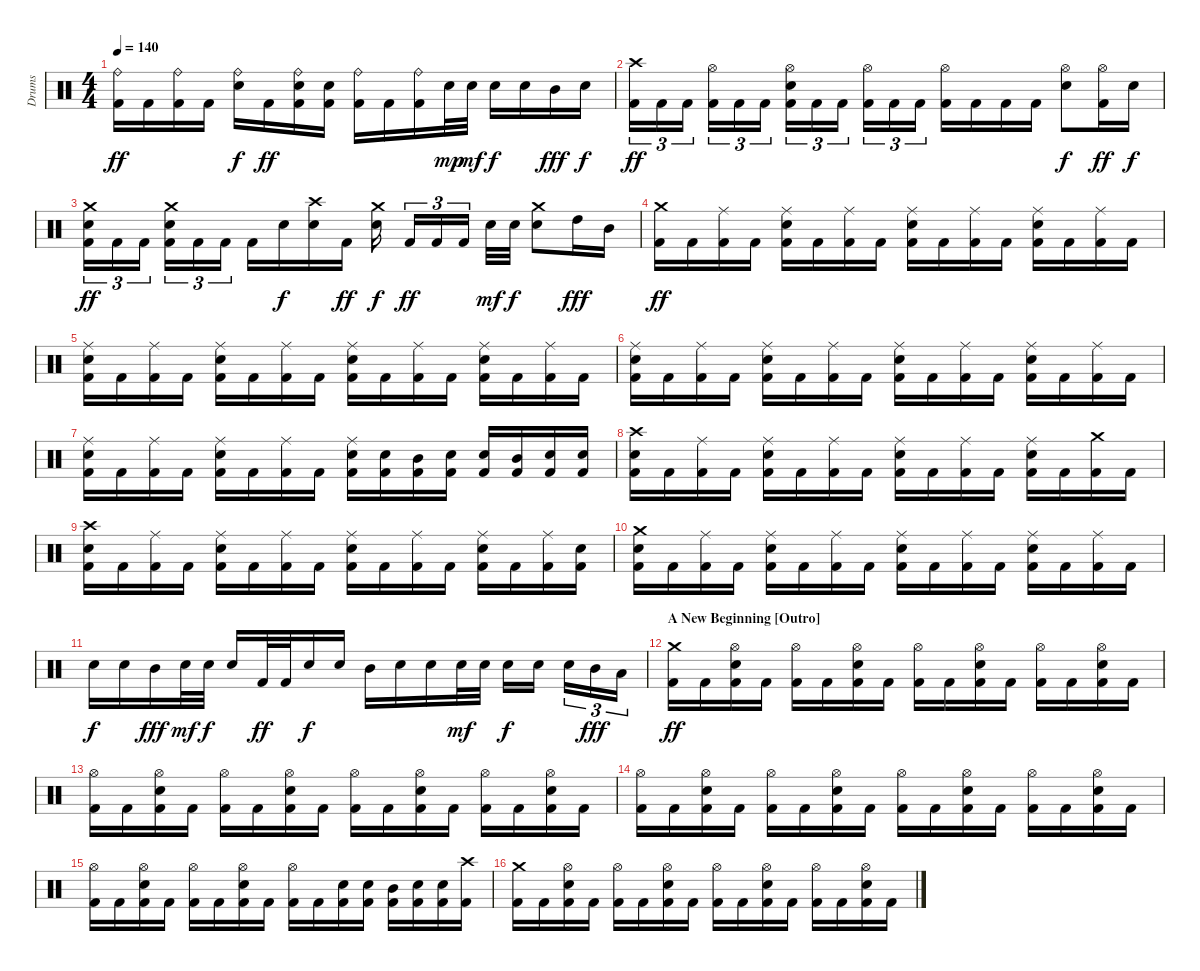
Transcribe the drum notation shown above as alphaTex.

\track ("Drums" "Drums") {instrument percussion}
\staff {score}
\articulation defaults
\ts (4 4)
\tempo 140
\clef neutral
\ks c
("Ride (bell)" "Kick (hit) 2").16{dy ff} "Kick (hit) 2".16 ("Ride (bell)" "Kick (hit) 2").16 "Kick (hit) 2".16 ("Ride (bell)" "Snare (hit) 2").16{dy f} "Kick (hit) 2".16{dy ff} ("Ride (bell)" "Snare (hit) 2" "Kick (hit) 2").16 ("Snare (hit) 2" "Kick (hit) 2").16 ("Ride (bell)" "Kick (hit) 2").16 "Kick (hit) 2".16 ("Ride (bell)" "Kick (hit) 2").16 "Snare (hit) 2".32{dy mp} "Snare (hit) 2".32{dy mf} "Snare (hit) 2".16{dy f} "Snare (hit) 2".16 "Mid Tom (hit)".16{dy fff} "Snare (hit) 2".16{dy f} |
("Crash high (hit)" "Kick (hit) 2").16{tu (3 2) dy ff} "Kick (hit) 2".16{tu (3 2)} "Kick (hit) 2".16{tu (3 2)} ("Hi-Hat (open)" "Kick (hit) 2").16{tu (3 2)} "Kick (hit) 2".16{tu (3 2)} "Kick (hit) 2".16{tu (3 2)} ("Hi-Hat (open)" "Snare (hit) 2" "Kick (hit) 2").16{tu (3 2)} "Kick (hit) 2".16{tu (3 2)} "Kick (hit) 2".16{tu (3 2)} ("Hi-Hat (open)" "Kick (hit) 2").16{tu (3 2)} "Kick (hit) 2".16{tu (3 2)} "Kick (hit) 2".16{tu (3 2)} ("Hi-Hat (open)" "Kick (hit) 2").16 "Kick (hit) 2".16 "Kick (hit) 2".16 "Kick (hit) 2".16 ("Hi-Hat (open)" "Snare (hit) 2").8{dy f} ("Hi-Hat (open)" "Kick (hit) 2").16{dy ff} "Snare (hit) 2".16{dy f} |
("Crash medium (hit)" "Snare (hit) 2" "Kick (hit) 2").16{tu (3 2) dy ff} "Kick (hit) 2".16{tu (3 2)} "Kick (hit) 2".16{tu (3 2)} ("Crash medium (hit)" "Snare (hit) 2" "Kick (hit) 2").16{tu (3 2)} "Kick (hit) 2".16{tu (3 2)} "Kick (hit) 2".16{tu (3 2)} "Kick (hit) 2".16 "Snare (hit) 2".16{dy f} ("Crash high (hit)" "Snare (hit) 2").16 "Kick (hit) 2".16{dy ff} ("Crash medium (hit)" "Snare (hit) 2").16{dy f} "Kick (hit) 2".16{tu (3 2) dy ff} "Kick (hit) 2".16{tu (3 2)} "Kick (hit) 2".16{tu (3 2)} "Snare (hit) 2".32{dy mf} "Snare (hit) 2".32{dy f} ("Crash medium (hit)" "Snare (hit) 2").8 "High Tom (hit)".16{dy fff} "Mid Tom (hit)".16 |
("Crash medium (hit)" "Kick (hit) 2").16{dy ff} "Kick (hit) 2".16 ("Ride (middle)" "Kick (hit) 2").16 "Kick (hit) 2".16 ("Ride (middle)" "Snare (hit) 2" "Kick (hit) 2").16 "Kick (hit) 2".16 ("Ride (middle)" "Kick (hit) 2").16 "Kick (hit) 2".16 ("Ride (middle)" "Snare (hit) 2" "Kick (hit) 2").16 "Kick (hit) 2".16 ("Ride (middle)" "Kick (hit) 2").16 "Kick (hit) 2".16 ("Ride (middle)" "Snare (hit) 2" "Kick (hit) 2").16 "Kick (hit) 2".16 ("Ride (middle)" "Kick (hit) 2").16 "Kick (hit) 2".16 |
("Ride (middle)" "Snare (hit) 2" "Kick (hit) 2").16 "Kick (hit) 2".16 ("Ride (middle)" "Kick (hit) 2").16 "Kick (hit) 2".16 ("Ride (middle)" "Snare (hit) 2" "Kick (hit) 2").16 "Kick (hit) 2".16 ("Ride (middle)" "Kick (hit) 2").16 "Kick (hit) 2".16 ("Ride (middle)" "Snare (hit) 2" "Kick (hit) 2").16 "Kick (hit) 2".16 ("Ride (middle)" "Kick (hit) 2").16 "Kick (hit) 2".16 ("Ride (middle)" "Snare (hit) 2" "Kick (hit) 2").16 "Kick (hit) 2".16 ("Ride (middle)" "Kick (hit) 2").16 "Kick (hit) 2".16 |
("Ride (middle)" "Snare (hit) 2" "Kick (hit) 2").16 "Kick (hit) 2".16 ("Ride (middle)" "Kick (hit) 2").16 "Kick (hit) 2".16 ("Ride (middle)" "Snare (hit) 2" "Kick (hit) 2").16 "Kick (hit) 2".16 ("Ride (middle)" "Kick (hit) 2").16 "Kick (hit) 2".16 ("Ride (middle)" "Snare (hit) 2" "Kick (hit) 2").16 "Kick (hit) 2".16 ("Ride (middle)" "Kick (hit) 2").16 "Kick (hit) 2".16 ("Ride (middle)" "Snare (hit) 2" "Kick (hit) 2").16 "Kick (hit) 2".16 ("Ride (middle)" "Kick (hit) 2").16 "Kick (hit) 2".16 |
("Ride (middle)" "Snare (hit) 2" "Kick (hit) 2").16 "Kick (hit) 2".16 ("Ride (middle)" "Kick (hit) 2").16 "Kick (hit) 2".16 ("Ride (middle)" "Snare (hit) 2" "Kick (hit) 2").16 "Kick (hit) 2".16 ("Ride (middle)" "Kick (hit) 2").16 "Kick (hit) 2".16 ("Ride (middle)" "Snare (hit) 2" "Kick (hit) 2").16 ("Snare (hit) 2" "Kick (hit) 2").16 ("Mid Tom (hit)" "Kick (hit) 2").16 ("Snare (hit) 2" "Kick (hit) 2").16 ("Snare (hit) 2" "Kick (hit) 2").16 ("Mid Tom (hit)" "Kick (hit) 2").16 ("Snare (hit) 2" "Kick (hit) 2").16 ("Snare (hit) 2" "Kick (hit) 2").16 |
("Crash high (hit)" "Snare (hit) 2" "Kick (hit) 2").16 "Kick (hit) 2".16 ("Ride (middle)" "Kick (hit) 2").16 "Kick (hit) 2".16 ("Ride (middle)" "Snare (hit) 2" "Kick (hit) 2").16 "Kick (hit) 2".16 ("Ride (middle)" "Kick (hit) 2").16 "Kick (hit) 2".16 ("Ride (middle)" "Snare (hit) 2" "Kick (hit) 2").16 "Kick (hit) 2".16 ("Ride (middle)" "Kick (hit) 2").16 "Kick (hit) 2".16 ("Ride (middle)" "Snare (hit) 2" "Kick (hit) 2").16 "Kick (hit) 2".16 ("Crash medium (hit)" "Kick (hit) 2").16 "Kick (hit) 2".16 |
("Crash high (hit)" "Snare (hit) 2" "Kick (hit) 2").16 "Kick (hit) 2".16 ("Ride (middle)" "Kick (hit) 2").16 "Kick (hit) 2".16 ("Ride (middle)" "Snare (hit) 2" "Kick (hit) 2").16 "Kick (hit) 2".16 ("Ride (middle)" "Kick (hit) 2").16 "Kick (hit) 2".16 ("Ride (middle)" "Snare (hit) 2" "Kick (hit) 2").16 "Kick (hit) 2".16 ("Ride (middle)" "Kick (hit) 2").16 "Kick (hit) 2".16 ("Ride (middle)" "Snare (hit) 2" "Kick (hit) 2").16 "Kick (hit) 2".16 ("Ride (middle)" "Kick (hit) 2").16 ("Snare (hit) 2" "Kick (hit) 2").16 |
("Crash medium (hit)" "Snare (hit) 2" "Kick (hit) 2").16 "Kick (hit) 2".16 ("Ride (middle)" "Kick (hit) 2").16 "Kick (hit) 2".16 ("Ride (middle)" "Snare (hit) 2" "Kick (hit) 2").16 "Kick (hit) 2".16 ("Ride (middle)" "Kick (hit) 2").16 "Kick (hit) 2".16 ("Ride (middle)" "Snare (hit) 2" "Kick (hit) 2").16 "Kick (hit) 2".16 ("Ride (middle)" "Kick (hit) 2").16 "Kick (hit) 2".16 ("Ride (middle)" "Snare (hit) 2" "Kick (hit) 2").16 "Kick (hit) 2".16 ("Ride (middle)" "Kick (hit) 2").16 "Kick (hit) 2".16 |
"Snare (hit) 2".16{dy f} "Snare (hit) 2".16 "Mid Tom (hit)".16{dy fff} "Snare (hit) 2".32{dy mf} "Snare (hit) 2".32{dy f} "Snare (hit) 2".16 "Kick (hit) 2".32{dy ff} "Kick (hit) 2".32 "Snare (hit) 2".16{dy f} "Snare (hit) 2".16 "Mid Tom (hit)".16 "Snare (hit) 2".16 "Snare (hit) 2".16 "Snare (hit) 2".32{dy mf} "Snare (hit) 2".32 "Snare (hit) 2".16{dy f} "Snare (hit) 2".16 "Snare (hit) 2".16{tu (3 2)} "Mid Tom (hit)".16{tu (3 2) dy fff} "Low Tom (hit)".16{tu (3 2)} |
\section ("" "A New Beginning [Outro]")
("Crash medium (hit)" "Kick (hit) 2").16{dy ff} "Kick (hit) 2".16 ("Hi-Hat (open)" "Snare (hit) 2" "Kick (hit) 2").16 "Kick (hit) 2".16 ("Hi-Hat (open)" "Kick (hit) 2").16 "Kick (hit) 2".16 ("Hi-Hat (open)" "Snare (hit) 2" "Kick (hit) 2").16 "Kick (hit) 2".16 ("Hi-Hat (open)" "Kick (hit) 2").16 "Kick (hit) 2".16 ("Hi-Hat (open)" "Snare (hit) 2" "Kick (hit) 2").16 "Kick (hit) 2".16 ("Hi-Hat (open)" "Kick (hit) 2").16 "Kick (hit) 2".16 ("Hi-Hat (open)" "Snare (hit) 2" "Kick (hit) 2").16 "Kick (hit) 2".16 |
("Hi-Hat (open)" "Kick (hit) 2").16 "Kick (hit) 2".16 ("Hi-Hat (open)" "Snare (hit) 2" "Kick (hit) 2").16 "Kick (hit) 2".16 ("Hi-Hat (open)" "Kick (hit) 2").16 "Kick (hit) 2".16 ("Hi-Hat (open)" "Snare (hit) 2" "Kick (hit) 2").16 "Kick (hit) 2".16 ("Hi-Hat (open)" "Kick (hit) 2").16 "Kick (hit) 2".16 ("Hi-Hat (open)" "Snare (hit) 2" "Kick (hit) 2").16 "Kick (hit) 2".16 ("Hi-Hat (open)" "Kick (hit) 2").16 "Kick (hit) 2".16 ("Hi-Hat (open)" "Snare (hit) 2" "Kick (hit) 2").16 "Kick (hit) 2".16 |
("Hi-Hat (open)" "Kick (hit) 2").16 "Kick (hit) 2".16 ("Hi-Hat (open)" "Snare (hit) 2" "Kick (hit) 2").16 "Kick (hit) 2".16 ("Hi-Hat (open)" "Kick (hit) 2").16 "Kick (hit) 2".16 ("Hi-Hat (open)" "Snare (hit) 2" "Kick (hit) 2").16 "Kick (hit) 2".16 ("Hi-Hat (open)" "Kick (hit) 2").16 "Kick (hit) 2".16 ("Hi-Hat (open)" "Snare (hit) 2" "Kick (hit) 2").16 "Kick (hit) 2".16 ("Hi-Hat (open)" "Kick (hit) 2").16 "Kick (hit) 2".16 ("Hi-Hat (open)" "Snare (hit) 2" "Kick (hit) 2").16 "Kick (hit) 2".16 |
("Hi-Hat (open)" "Kick (hit) 2").16 "Kick (hit) 2".16 ("Hi-Hat (open)" "Snare (hit) 2" "Kick (hit) 2").16 "Kick (hit) 2".16 ("Hi-Hat (open)" "Kick (hit) 2").16 "Kick (hit) 2".16 ("Hi-Hat (open)" "Snare (hit) 2" "Kick (hit) 2").16 "Kick (hit) 2".16 ("Hi-Hat (open)" "Kick (hit) 2").16 "Kick (hit) 2".16 ("Snare (hit) 2" "Kick (hit) 2").16 ("Snare (hit) 2" "Kick (hit) 2").16 ("Mid Tom (hit)" "Kick (hit) 2").16 ("Snare (hit) 2" "Kick (hit) 2").16 ("Snare (hit) 2" "Kick (hit) 2").16 ("Crash high (hit)" "Kick (hit) 2").16 |
("Crash medium (hit)" "Kick (hit) 2").16 "Kick (hit) 2".16 ("Hi-Hat (open)" "Snare (hit) 2" "Kick (hit) 2").16 "Kick (hit) 2".16 ("Hi-Hat (open)" "Kick (hit) 2").16 "Kick (hit) 2".16 ("Hi-Hat (open)" "Snare (hit) 2" "Kick (hit) 2").16 "Kick (hit) 2".16 ("Hi-Hat (open)" "Kick (hit) 2").16 "Kick (hit) 2".16 ("Hi-Hat (open)" "Snare (hit) 2" "Kick (hit) 2").16 "Kick (hit) 2".16 ("Hi-Hat (open)" "Kick (hit) 2").16 "Kick (hit) 2".16 ("Hi-Hat (open)" "Snare (hit) 2" "Kick (hit) 2").16 "Kick (hit) 2".16
